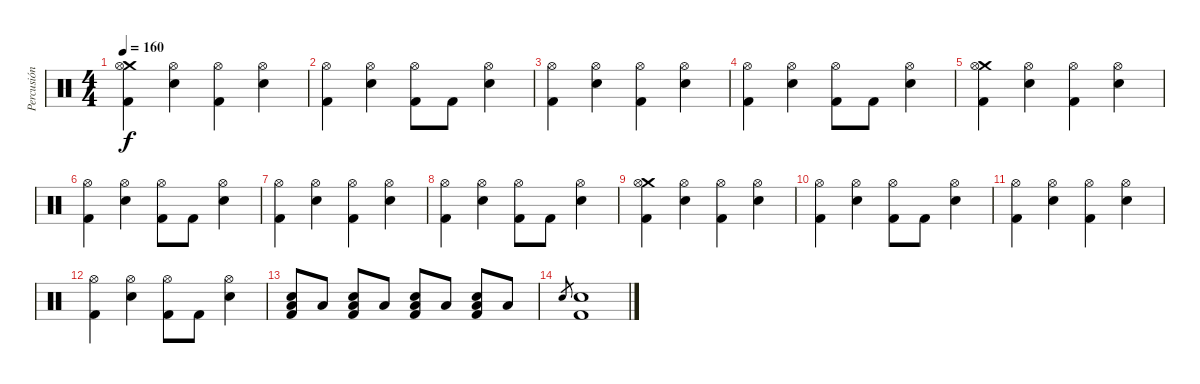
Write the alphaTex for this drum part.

\track ("Percusión" "Percusión") {instrument percussion}
\staff {score}
\articulation defaults
\ts (4 4)
\tempo 160
\clef neutral
\ks c
("Crash medium (hit)" "Hi-Hat (open)" "Kick (hit) 2").4{dy f} ("Hi-Hat (open)" "Snare (hit) 2").4 ("Hi-Hat (open)" "Kick (hit) 2").4 ("Hi-Hat (open)" "Snare (hit) 2").4 |
("Hi-Hat (open)" "Kick (hit) 2").4 ("Hi-Hat (open)" "Snare (hit) 2").4 ("Hi-Hat (open)" "Kick (hit) 2").8 "Kick (hit) 2".8 ("Hi-Hat (open)" "Snare (hit) 2").4 |
("Hi-Hat (open)" "Kick (hit) 2").4 ("Hi-Hat (open)" "Snare (hit) 2").4 ("Hi-Hat (open)" "Kick (hit) 2").4 ("Hi-Hat (open)" "Snare (hit) 2").4 |
("Hi-Hat (open)" "Kick (hit) 2").4 ("Hi-Hat (open)" "Snare (hit) 2").4 ("Hi-Hat (open)" "Kick (hit) 2").8 "Kick (hit) 2".8 ("Hi-Hat (open)" "Snare (hit) 2").4 |
("Crash medium (hit)" "Hi-Hat (open)" "Kick (hit) 2").4 ("Hi-Hat (open)" "Snare (hit) 2").4 ("Hi-Hat (open)" "Kick (hit) 2").4 ("Hi-Hat (open)" "Snare (hit) 2").4 |
("Hi-Hat (open)" "Kick (hit) 2").4 ("Hi-Hat (open)" "Snare (hit) 2").4 ("Hi-Hat (open)" "Kick (hit) 2").8 "Kick (hit) 2".8 ("Hi-Hat (open)" "Snare (hit) 2").4 |
("Hi-Hat (open)" "Kick (hit) 2").4 ("Hi-Hat (open)" "Snare (hit) 2").4 ("Hi-Hat (open)" "Kick (hit) 2").4 ("Hi-Hat (open)" "Snare (hit) 2").4 |
("Hi-Hat (open)" "Kick (hit) 2").4 ("Hi-Hat (open)" "Snare (hit) 2").4 ("Hi-Hat (open)" "Kick (hit) 2").8 "Kick (hit) 2".8 ("Hi-Hat (open)" "Snare (hit) 2").4 |
("Crash medium (hit)" "Hi-Hat (open)" "Kick (hit) 2").4 ("Hi-Hat (open)" "Snare (hit) 2").4 ("Hi-Hat (open)" "Kick (hit) 2").4 ("Hi-Hat (open)" "Snare (hit) 2").4 |
("Hi-Hat (open)" "Kick (hit) 2").4 ("Hi-Hat (open)" "Snare (hit) 2").4 ("Hi-Hat (open)" "Kick (hit) 2").8 "Kick (hit) 2".8 ("Hi-Hat (open)" "Snare (hit) 2").4 |
("Hi-Hat (open)" "Kick (hit) 2").4 ("Hi-Hat (open)" "Snare (hit) 2").4 ("Hi-Hat (open)" "Kick (hit) 2").4 ("Hi-Hat (open)" "Snare (hit) 2").4 |
("Hi-Hat (open)" "Kick (hit) 2").4 ("Hi-Hat (open)" "Snare (hit) 2").4 ("Hi-Hat (open)" "Kick (hit) 2").8 "Kick (hit) 2".8 ("Hi-Hat (open)" "Snare (hit) 2").4 |
("Snare (hit) 2" "Low Floor Tom (hit)" "Kick (hit) 2").8 "Low Floor Tom (hit)".8 ("Snare (hit) 2" "Low Floor Tom (hit)" "Kick (hit) 2").8 "Low Floor Tom (hit)".8 ("Snare (hit) 2" "Low Floor Tom (hit)" "Kick (hit) 2").8 "Low Floor Tom (hit)".8 ("Snare (hit) 2" "Low Floor Tom (hit)" "Kick (hit) 2").8 "Low Floor Tom (hit)".8 |
"Snare (hit) 2".8{gr} ("Snare (hit) 2" "Kick (hit) 2").1
